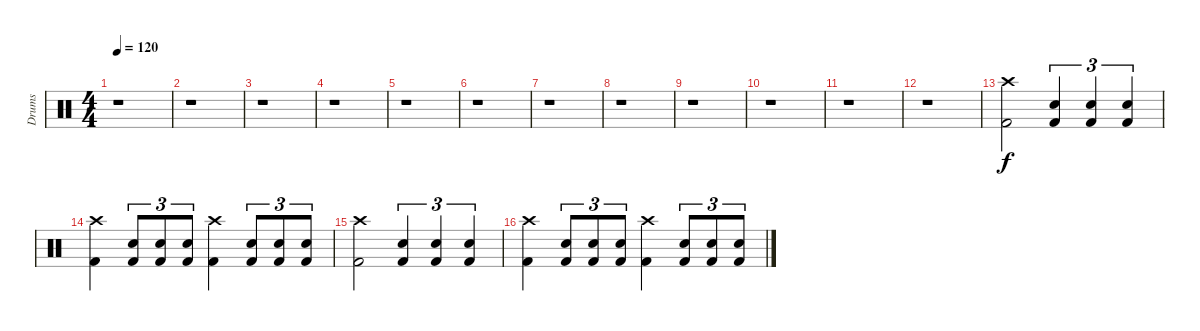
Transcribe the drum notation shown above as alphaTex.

\track ("Drums" "Drums") {instrument percussion}
\staff {score}
\articulation defaults
\ts (4 4)
\tempo 120
\clef neutral
\ks c
r.1{dy f} |
r.1 |
r.1 |
r.1 |
r.1 |
r.1 |
r.1 |
r.1 |
r.1 |
r.1 |
r.1 |
r.1 |
("Crash high (hit)" "Kick (hit) 2").2 ("Snare (hit) 2" "Kick (hit) 2").4{tu (3 2)} ("Snare (hit) 2" "Kick (hit) 2").4{tu (3 2)} ("Snare (hit) 2" "Kick (hit) 2").4{tu (3 2)} |
("Crash high (hit)" "Kick (hit) 2").4 ("Snare (hit) 2" "Kick (hit) 2").8{tu (3 2)} ("Snare (hit) 2" "Kick (hit) 2").8{tu (3 2)} ("Snare (hit) 2" "Kick (hit) 2").8{tu (3 2)} ("Crash high (hit)" "Kick (hit) 2").4 ("Snare (hit) 2" "Kick (hit) 2").8{tu (3 2)} ("Snare (hit) 2" "Kick (hit) 2").8{tu (3 2)} ("Snare (hit) 2" "Kick (hit) 2").8{tu (3 2)} |
("Crash high (hit)" "Kick (hit) 2").2 ("Snare (hit) 2" "Kick (hit) 2").4{tu (3 2)} ("Snare (hit) 2" "Kick (hit) 2").4{tu (3 2)} ("Snare (hit) 2" "Kick (hit) 2").4{tu (3 2)} |
("Crash high (hit)" "Kick (hit) 2").4 ("Snare (hit) 2" "Kick (hit) 2").8{tu (3 2)} ("Snare (hit) 2" "Kick (hit) 2").8{tu (3 2)} ("Snare (hit) 2" "Kick (hit) 2").8{tu (3 2)} ("Crash high (hit)" "Kick (hit) 2").4 ("Snare (hit) 2" "Kick (hit) 2").8{tu (3 2)} ("Snare (hit) 2" "Kick (hit) 2").8{tu (3 2)} ("Snare (hit) 2" "Kick (hit) 2").8{tu (3 2)}
